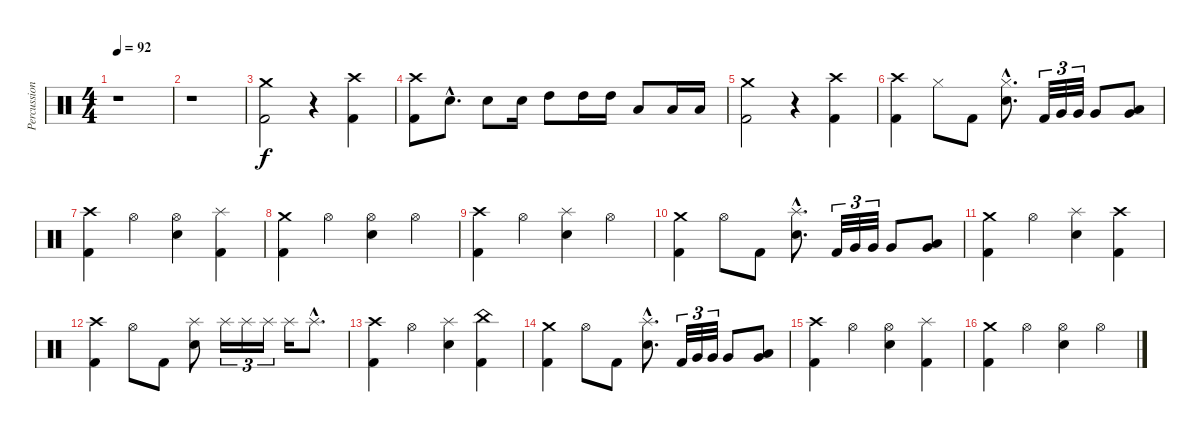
\track ("Percussion" "Percussion") {instrument percussion}
\staff {score}
\articulation defaults
\ts (4 4)
\tempo 92
\clef neutral
\ks c
r.1{dy f} |
r.1 |
("Crash medium (hit)" "Kick (hit) 2").2 r.4 ("Crash high (hit)" "Kick (hit) 2").4 |
("Crash high (hit)" "Kick (hit) 2").8 "Electric Snare (hit)"{hac}.8{d} "Electric Snare (hit)".8 "Electric Snare (hit)".16 "High Tom (hit)".8 "High Tom (hit)".16 "High Tom (hit)".16 "Low Tom (hit)".8 "Low Tom (hit)".16 "Low Tom (hit)".16 |
("Crash medium (hit)" "Kick (hit) 2").2 r.4 ("Crash high (hit)" "Kick (hit) 2").4 |
("Crash high (hit)" "Kick (hit) 2").4 "Hi-Hat (closed)".8 "Kick (hit) 2".8 ("Hi-Hat (closed)"{hac} "Electric Snare (hit)"{hac}).8{d} "Kick (hit) 2".32{tu (3 2)} "Very Low Tom (hit)".32{tu (3 2)} "Very Low Tom (hit)".32{tu (3 2)} "Very Low Tom (hit)".8 ("Low Tom (hit)" "Very Low Tom (hit)").8 |
("Crash high (hit)" "Kick (hit) 2").4 "Hi-Hat (open)".4 ("Hi-Hat (open)" "Electric Snare (hit)").4 ("Splash (hit)" "Kick (hit) 2").4 |
("Crash medium (hit)" "Kick (hit) 2").4 "Hi-Hat (open)".4 ("Hi-Hat (open)" "Electric Snare (hit)").4 "Hi-Hat (open)".4 |
("Crash high (hit)" "Kick (hit) 2").4 "Hi-Hat (open)".4 ("Splash (hit)" "Electric Snare (hit)").4 "Hi-Hat (open)".4 |
("Crash medium (hit)" "Kick (hit) 2").4 "Hi-Hat (open)".8 "Kick (hit) 2".8 ("Splash (hit)"{hac} "Electric Snare (hit)"{hac}).8{d} "Kick (hit) 2".32{tu (3 2)} "Very Low Tom (hit)".32{tu (3 2)} "Very Low Tom (hit)".32{tu (3 2)} "Very Low Tom (hit)".8 ("Low Tom (hit)" "Very Low Tom (hit)").8 |
("Crash medium (hit)" "Kick (hit) 2").4 "Hi-Hat (open)".4 ("Splash (hit)" "Electric Snare (hit)").4 ("Kick (hit) 2" "Crash high (hit)").4 |
("Crash high (hit)" "Kick (hit) 2").4 "Hi-Hat (open)".8 "Kick (hit) 2".8 ("Splash (hit)" "Electric Snare (hit)").8 "Splash (hit)".16{tu (3 2)} "Splash (hit)".16{tu (3 2)} "Splash (hit)".16{tu (3 2)} "Splash (hit)".16 "Splash (hit)"{hac}.8{d} |
("Crash high (hit)" "Kick (hit) 2").4 "Hi-Hat (open)".4 ("Splash (hit)" "Electric Snare (hit)").4 ("China (hit)" "Kick (hit) 2").4 |
("Crash medium (hit)" "Kick (hit) 2").4 "Hi-Hat (open)".8 "Kick (hit) 2".8 ("Splash (hit)"{hac} "Electric Snare (hit)"{hac}).8{d} "Kick (hit) 2".32{tu (3 2)} "Very Low Tom (hit)".32{tu (3 2)} "Very Low Tom (hit)".32{tu (3 2)} "Very Low Tom (hit)".8 ("Low Tom (hit)" "Very Low Tom (hit)").8 |
("Crash high (hit)" "Kick (hit) 2").4 "Hi-Hat (open)".4 ("Hi-Hat (open)" "Electric Snare (hit)").4 ("Splash (hit)" "Kick (hit) 2").4 |
("Crash medium (hit)" "Kick (hit) 2").4 "Hi-Hat (open)".4 ("Hi-Hat (open)" "Electric Snare (hit)").4 "Hi-Hat (open)".4
